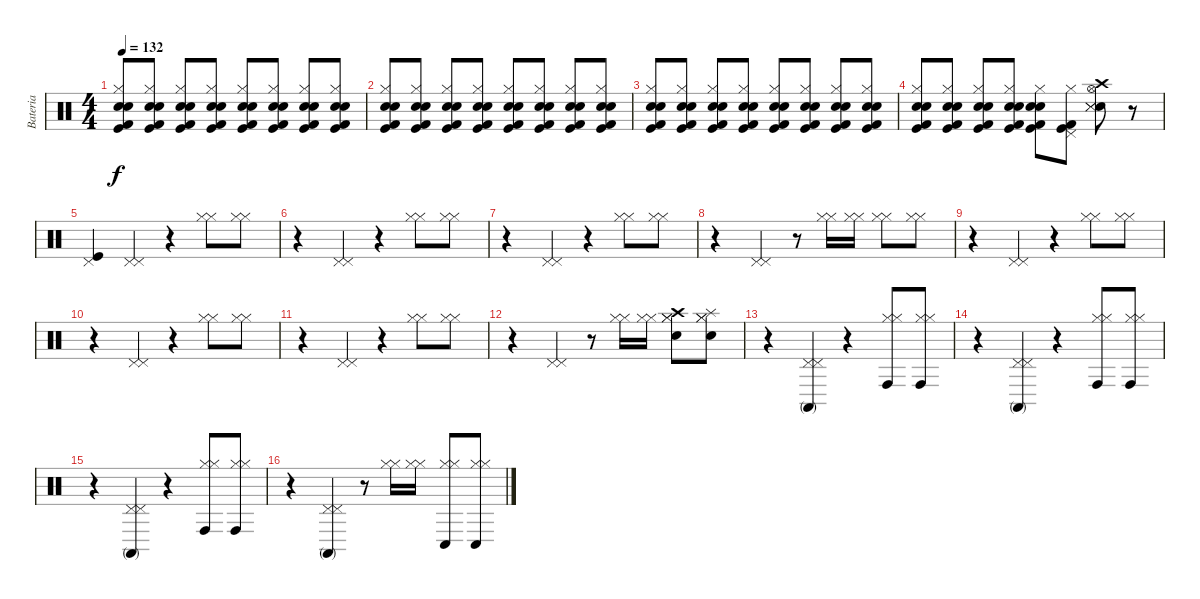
\track ("Bateria" "Bateria") {instrument percussion}
\staff {score}
\articulation defaults
\ts (4 4)
\tempo 132
\clef neutral
\ks c
("Snare (hit) 2" "Electric Snare (hit)" "Hi-Hat (closed)" "Kick (hit)" "Kick (hit) 2").8{dy f volume 4} ("Snare (hit) 2" "Electric Snare (hit)" "Hi-Hat (closed)" "Kick (hit)" "Kick (hit) 2").8 ("Snare (hit) 2" "Electric Snare (hit)" "Hi-Hat (closed)" "Kick (hit)" "Kick (hit) 2").8 ("Snare (hit) 2" "Electric Snare (hit)" "Hi-Hat (closed)" "Kick (hit)" "Kick (hit) 2").8 ("Snare (hit) 2" "Electric Snare (hit)" "Hi-Hat (closed)" "Kick (hit)" "Kick (hit) 2").8 ("Snare (hit) 2" "Electric Snare (hit)" "Hi-Hat (closed)" "Kick (hit)" "Kick (hit) 2").8 ("Snare (hit) 2" "Electric Snare (hit)" "Hi-Hat (closed)" "Kick (hit)" "Kick (hit) 2").8 ("Snare (hit) 2" "Electric Snare (hit)" "Hi-Hat (closed)" "Kick (hit)" "Kick (hit) 2").8 |
("Snare (hit) 2" "Electric Snare (hit)" "Hi-Hat (closed)" "Kick (hit)" "Kick (hit) 2").8{volume 8} ("Snare (hit) 2" "Electric Snare (hit)" "Hi-Hat (closed)" "Kick (hit)" "Kick (hit) 2").8 ("Snare (hit) 2" "Electric Snare (hit)" "Hi-Hat (closed)" "Kick (hit)" "Kick (hit) 2").8 ("Snare (hit) 2" "Electric Snare (hit)" "Hi-Hat (closed)" "Kick (hit)" "Kick (hit) 2").8 ("Snare (hit) 2" "Electric Snare (hit)" "Hi-Hat (closed)" "Kick (hit)" "Kick (hit) 2").8 ("Snare (hit) 2" "Electric Snare (hit)" "Hi-Hat (closed)" "Kick (hit)" "Kick (hit) 2").8 ("Snare (hit) 2" "Electric Snare (hit)" "Hi-Hat (closed)" "Kick (hit)" "Kick (hit) 2").8 ("Snare (hit) 2" "Electric Snare (hit)" "Hi-Hat (closed)" "Kick (hit)" "Kick (hit) 2").8 |
("Snare (hit) 2" "Electric Snare (hit)" "Hi-Hat (closed)" "Kick (hit)" "Kick (hit) 2").8{volume 12} ("Snare (hit) 2" "Electric Snare (hit)" "Hi-Hat (closed)" "Kick (hit)" "Kick (hit) 2").8 ("Snare (hit) 2" "Electric Snare (hit)" "Hi-Hat (closed)" "Kick (hit)" "Kick (hit) 2").8 ("Snare (hit) 2" "Electric Snare (hit)" "Hi-Hat (closed)" "Kick (hit)" "Kick (hit) 2").8 ("Snare (hit) 2" "Electric Snare (hit)" "Hi-Hat (closed)" "Kick (hit)" "Kick (hit) 2").8 ("Snare (hit) 2" "Electric Snare (hit)" "Hi-Hat (closed)" "Kick (hit)" "Kick (hit) 2").8 ("Snare (hit) 2" "Electric Snare (hit)" "Hi-Hat (closed)" "Kick (hit)" "Kick (hit) 2").8 ("Snare (hit) 2" "Electric Snare (hit)" "Hi-Hat (closed)" "Kick (hit)" "Kick (hit) 2").8 |
("Snare (hit) 2" "Electric Snare (hit)" "Hi-Hat (closed)" "Kick (hit)" "Kick (hit) 2").8{volume 15} ("Snare (hit) 2" "Electric Snare (hit)" "Hi-Hat (closed)" "Kick (hit)" "Kick (hit) 2").8 ("Snare (hit) 2" "Electric Snare (hit)" "Hi-Hat (closed)" "Kick (hit)" "Kick (hit) 2").8 ("Snare (hit) 2" "Electric Snare (hit)" "Hi-Hat (closed)" "Kick (hit)" "Kick (hit) 2").8 ("Snare (hit) 2" "Electric Snare (hit)" "Hi-Hat (closed)" "Kick (hit)" "Kick (hit) 2").8 ("Pedal Hi-Hat (hit)" "Hi-Hat (closed)" "Kick (hit)" "Kick (hit) 2").8 ("Hi-Hat (open)" "Crash high (hit)" "Electric Snare (hit)" "Snare (side stick) 3" "Snare (side stick) 3").8 r.8 |
("Pedal Hi-Hat (hit)" "Kick (hit)").4 ("Pedal Hi-Hat (hit)" "Pedal Hi-Hat (hit)").4 r.4 ("Hi-Hat (closed)" "Hi-Hat (closed)").8 ("Hi-Hat (closed)" "Hi-Hat (closed)").8 |
r.4 ("Pedal Hi-Hat (hit)" "Pedal Hi-Hat (hit)").4 r.4 ("Hi-Hat (closed)" "Hi-Hat (closed)").8 ("Hi-Hat (closed)" "Hi-Hat (closed)").8 |
r.4 ("Pedal Hi-Hat (hit)" "Pedal Hi-Hat (hit)").4 r.4 ("Hi-Hat (closed)" "Hi-Hat (closed)").8 ("Hi-Hat (closed)" "Hi-Hat (closed)").8 |
r.4 ("Pedal Hi-Hat (hit)" "Pedal Hi-Hat (hit)").4 r.8 ("Hi-Hat (closed)" "Hi-Hat (closed)").16 ("Hi-Hat (closed)" "Hi-Hat (closed)").16 ("Hi-Hat (closed)" "Hi-Hat (closed)").8 ("Hi-Hat (closed)" "Hi-Hat (closed)").8 |
r.4 ("Pedal Hi-Hat (hit)" "Pedal Hi-Hat (hit)").4 r.4 ("Hi-Hat (closed)" "Hi-Hat (closed)").8 ("Hi-Hat (closed)" "Hi-Hat (closed)").8 |
r.4 ("Pedal Hi-Hat (hit)" "Pedal Hi-Hat (hit)").4 r.4 ("Hi-Hat (closed)" "Hi-Hat (closed)").8 ("Hi-Hat (closed)" "Hi-Hat (closed)").8 |
r.4 ("Pedal Hi-Hat (hit)" "Pedal Hi-Hat (hit)").4 r.4 ("Hi-Hat (closed)" "Hi-Hat (closed)").8 ("Hi-Hat (closed)" "Hi-Hat (closed)").8 |
r.4 ("Pedal Hi-Hat (hit)" "Pedal Hi-Hat (hit)").4 r.8 ("Hi-Hat (closed)" "Hi-Hat (closed)").16 ("Hi-Hat (closed)" "Hi-Hat (closed)").16 ("Hi-Hat (closed)" "Hi-Hat (closed)" "Crash high (hit)" "Snare (hit) 2").8 ("Hi-Hat (closed)" "Hi-Hat (closed)" "Splash (hit)" "Snare (hit) 2").8 |
r.4 ("Pedal Hi-Hat (hit)" "Pedal Hi-Hat (hit)" "Conga high (mute)").4 r.4 ("Hi-Hat (closed)" "Hi-Hat (closed)" "Conga high (hit)").8 ("Hi-Hat (closed)" "Hi-Hat (closed)" "Conga high (hit)").8 |
r.4 ("Pedal Hi-Hat (hit)" "Pedal Hi-Hat (hit)" "Conga high (mute)").4 r.4 ("Hi-Hat (closed)" "Hi-Hat (closed)" "Conga high (hit)").8 ("Hi-Hat (closed)" "Hi-Hat (closed)" "Conga high (hit)").8 |
r.4 ("Pedal Hi-Hat (hit)" "Pedal Hi-Hat (hit)" "Conga high (mute)").4 r.4 ("Hi-Hat (closed)" "Hi-Hat (closed)" "Conga high (hit)").8 ("Hi-Hat (closed)" "Hi-Hat (closed)" "Conga high (hit)").8 |
r.4 ("Pedal Hi-Hat (hit)" "Pedal Hi-Hat (hit)" "Conga high (mute)").4 r.8 ("Hi-Hat (closed)" "Hi-Hat (closed)").16 ("Hi-Hat (closed)" "Hi-Hat (closed)").16 ("Hi-Hat (closed)" "Hi-Hat (closed)" "Conga low (hit)").8 ("Hi-Hat (closed)" "Hi-Hat (closed)" "Conga low (hit)").8
